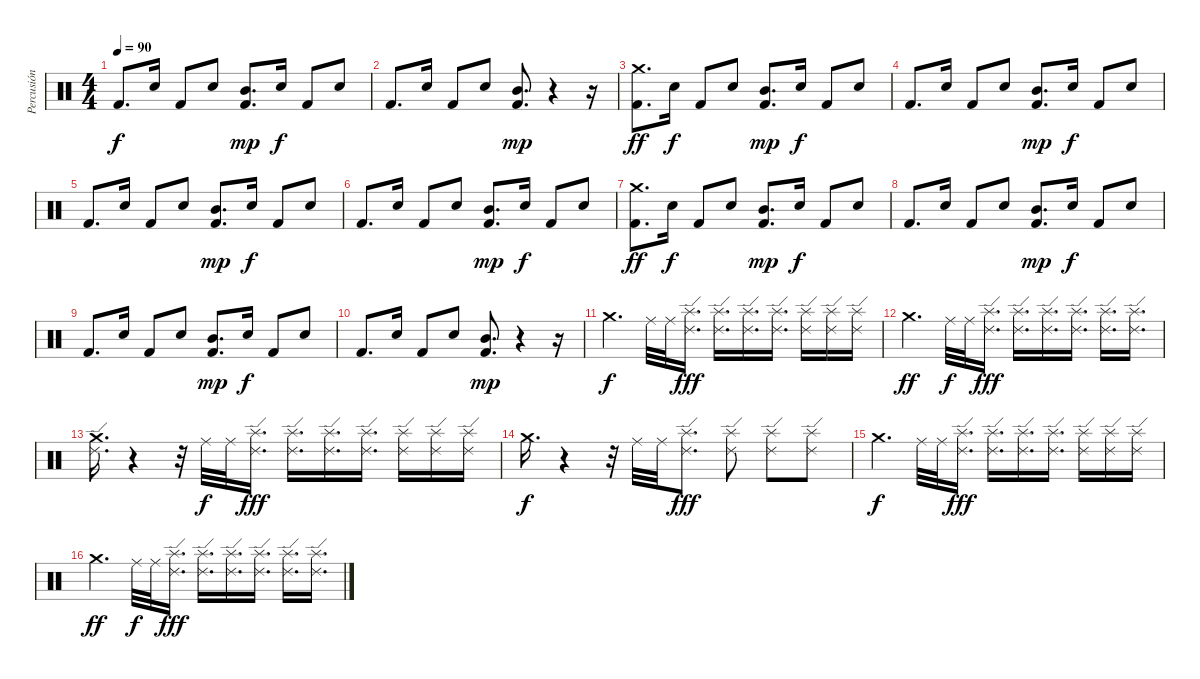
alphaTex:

\track ("Percusión" "Percusión") {instrument percussion}
\staff {score}
\articulation defaults
\ts (4 4)
\tempo 90
\clef neutral
\ks c "Kick (hit) 2".8{d dy f} "Electric Snare (hit)".16 "Kick (hit) 2".8 "Electric Snare (hit)".8
("Kick (hit) 2" "Mid Tom (hit)").8{d dy mp} "Electric Snare (hit)".16{dy f} "Kick (hit) 2".8 "Electric Snare (hit)".8 |
"Kick (hit) 2".8{d} "Electric Snare (hit)".16 "Kick (hit) 2".8 "Electric Snare (hit)".8 ("Kick (hit) 2" "Mid Tom (hit)").8{d dy mp} r.4 r.16 |
("Kick (hit) 2" "Crash medium (hit)").8{d dy ff} "Electric Snare (hit)".16{dy f} "Kick (hit) 2".8 "Electric Snare (hit)".8 ("Kick (hit) 2" "Mid Tom (hit)").8{d dy mp} "Electric Snare (hit)".16{dy f} "Kick (hit) 2".8 "Electric Snare (hit)".8 |
"Kick (hit) 2".8{d} "Electric Snare (hit)".16 "Kick (hit) 2".8 "Electric Snare (hit)".8 ("Kick (hit) 2" "Mid Tom (hit)").8{d dy mp} "Electric Snare (hit)".16{dy f} "Kick (hit) 2".8 "Electric Snare (hit)".8 |
"Kick (hit) 2".8{d} "Electric Snare (hit)".16 "Kick (hit) 2".8 "Electric Snare (hit)".8 ("Kick (hit) 2" "Mid Tom (hit)").8{d dy mp} "Electric Snare (hit)".16{dy f} "Kick (hit) 2".8 "Electric Snare (hit)".8 |
"Kick (hit) 2".8{d} "Electric Snare (hit)".16 "Kick (hit) 2".8 "Electric Snare (hit)".8 ("Kick (hit) 2" "Mid Tom (hit)").8{d dy mp} "Electric Snare (hit)".16{dy f} "Kick (hit) 2".8 "Electric Snare (hit)".8 |
("Kick (hit) 2" "Crash medium (hit)").8{d dy ff} "Electric Snare (hit)".16{dy f} "Kick (hit) 2".8 "Electric Snare (hit)".8 ("Kick (hit) 2" "Mid Tom (hit)").8{d dy mp} "Electric Snare (hit)".16{dy f} "Kick (hit) 2".8 "Electric Snare (hit)".8 |
"Kick (hit) 2".8{d} "Electric Snare (hit)".16 "Kick (hit) 2".8 "Electric Snare (hit)".8 ("Kick (hit) 2" "Mid Tom (hit)").8{d dy mp} "Electric Snare (hit)".16{dy f} "Kick (hit) 2".8 "Electric Snare (hit)".8 |
"Kick (hit) 2".8{d} "Electric Snare (hit)".16 "Kick (hit) 2".8 "Electric Snare (hit)".8 ("Kick (hit) 2" "Mid Tom (hit)").8{d dy mp} "Electric Snare (hit)".16{dy f} "Kick (hit) 2".8 "Electric Snare (hit)".8 |
"Kick (hit) 2".8{d} "Electric Snare (hit)".16 "Kick (hit) 2".8 "Electric Snare (hit)".8 ("Kick (hit) 2" "Mid Tom (hit)").8{d dy mp} r.4 r.16 |
"Crash medium (hit)".4{d dy f} "Ride (middle)".32 "Ride (middle)".32 ("Splash (hit)" "Ride (edge) 2").16{d dy fff} ("Splash (hit)" "Ride (edge) 2").16{d} ("Splash (hit)" "Ride (edge) 2").16{d} ("Splash (hit)" "Ride (edge) 2").16{d} ("Splash (hit)" "Ride (edge) 2").16 ("Splash (hit)" "Ride (edge) 2").16 ("Splash (hit)" "Ride (edge) 2").16 |
"Crash medium (hit)".4{d dy ff} "Ride (middle)".32{dy f} "Ride (middle)".32 ("Splash (hit)" "Ride (edge) 2").16{d dy fff} ("Splash (hit)" "Ride (edge) 2").16{d} ("Splash (hit)" "Ride (edge) 2").16{d} ("Splash (hit)" "Ride (edge) 2").16{d} ("Splash (hit)" "Ride (edge) 2").16{d} ("Splash (hit)" "Ride (edge) 2").16{d} |
("Ride (edge) 2" "Crash medium (hit)").16{d} r.4 r.32 "Ride (middle)".32{dy f} "Ride (middle)".32 ("Splash (hit)" "Ride (edge) 2").16{d dy fff} ("Splash (hit)" "Ride (edge) 2").16{d} ("Splash (hit)" "Ride (edge) 2").16{d} ("Splash (hit)" "Ride (edge) 2").16{d} ("Splash (hit)" "Ride (edge) 2").16 ("Splash (hit)" "Ride (edge) 2").16 ("Splash (hit)" "Ride (edge) 2").16 |
"Crash medium (hit)".16{d dy f} r.4 r.32 "Ride (middle)".32 "Ride (middle)".32 ("Splash (hit)" "Ride (edge) 2").8{d dy fff} ("Splash (hit)" "Ride (edge) 2").8 ("Splash (hit)" "Ride (edge) 2").8 ("Splash (hit)" "Ride (edge) 2").8 |
"Crash medium (hit)".4{d dy f} "Ride (middle)".32 "Ride (middle)".32 ("Splash (hit)" "Ride (edge) 2").16{d dy fff} ("Splash (hit)" "Ride (edge) 2").16{d} ("Splash (hit)" "Ride (edge) 2").16{d} ("Splash (hit)" "Ride (edge) 2").16{d} ("Splash (hit)" "Ride (edge) 2").16 ("Splash (hit)" "Ride (edge) 2").16 ("Splash (hit)" "Ride (edge) 2").16 |
"Crash medium (hit)".4{d dy ff} "Ride (middle)".32{dy f} "Ride (middle)".32 ("Splash (hit)" "Ride (edge) 2").16{d dy fff} ("Splash (hit)" "Ride (edge) 2").16{d} ("Splash (hit)" "Ride (edge) 2").16{d} ("Splash (hit)" "Ride (edge) 2").16{d} ("Splash (hit)" "Ride (edge) 2").16{d} ("Splash (hit)" "Ride (edge) 2").16{d}
